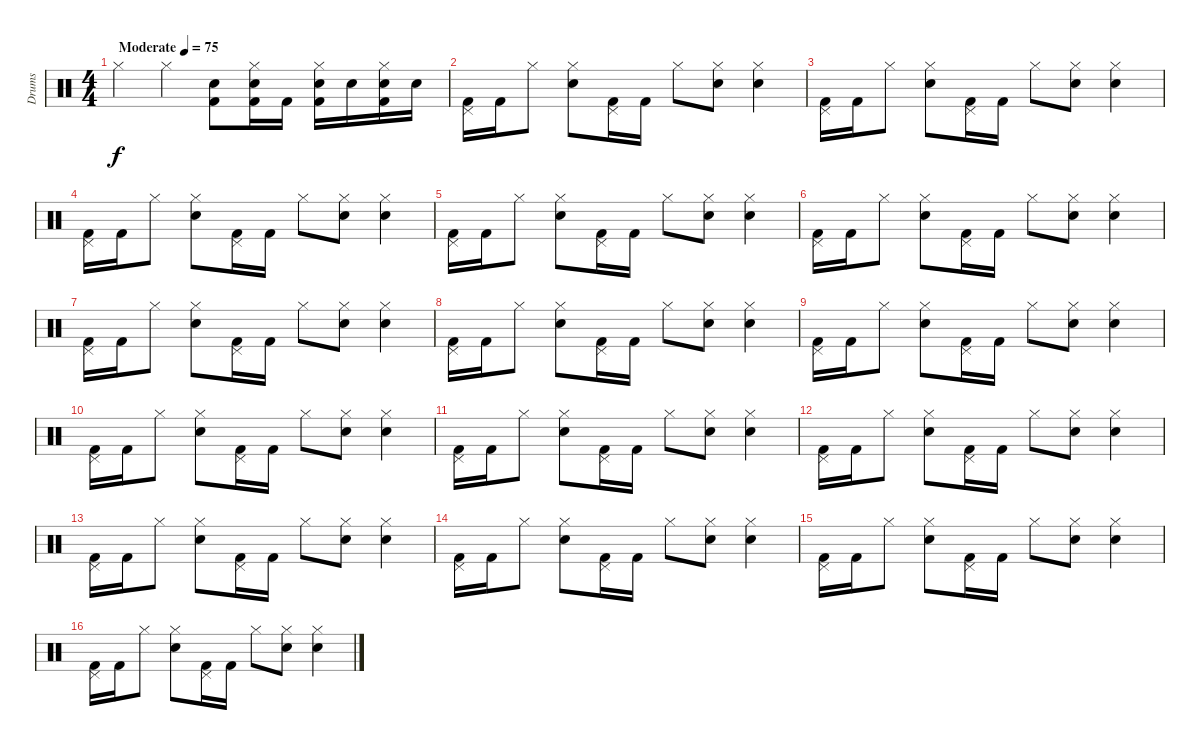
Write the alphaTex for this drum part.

\track ("Drums" "Drums") {instrument percussion}
\staff {score}
\articulation defaults
\ts (4 4)
\tempo (75 "Moderate")
\clef neutral
\ks c "Hi-Hat (closed)".4{dy f} "Hi-Hat (closed)".4
("Electric Snare (hit)" "Kick (hit) 2").8 ("Hi-Hat (closed)" "Electric Snare (hit)" "Kick (hit) 2").16 "Kick (hit) 2".16 ("Hi-Hat (closed)" "Electric Snare (hit)" "Kick (hit) 2").16 "Electric Snare (hit)".16 ("Hi-Hat (closed)" "Kick (hit) 2" "Electric Snare (hit)").16 "Electric Snare (hit)".16 |
("Pedal Hi-Hat (hit)" "Kick (hit) 2").16 "Kick (hit) 2".16 "Hi-Hat (closed)".8 ("Electric Snare (hit)" "Hi-Hat (closed)").8 ("Pedal Hi-Hat (hit)" "Kick (hit) 2").16 "Kick (hit) 2".16 "Hi-Hat (closed)".8 ("Electric Snare (hit)" "Hi-Hat (closed)").8 ("Electric Snare (hit)" "Hi-Hat (closed)").4 |
("Pedal Hi-Hat (hit)" "Kick (hit) 2").16 "Kick (hit) 2".16 "Hi-Hat (closed)".8 ("Electric Snare (hit)" "Hi-Hat (closed)").8 ("Pedal Hi-Hat (hit)" "Kick (hit) 2").16 "Kick (hit) 2".16 "Hi-Hat (closed)".8 ("Electric Snare (hit)" "Hi-Hat (closed)").8 ("Electric Snare (hit)" "Hi-Hat (closed)").4 |
("Pedal Hi-Hat (hit)" "Kick (hit) 2").16 "Kick (hit) 2".16 "Hi-Hat (closed)".8 ("Electric Snare (hit)" "Hi-Hat (closed)").8 ("Pedal Hi-Hat (hit)" "Kick (hit) 2").16 "Kick (hit) 2".16 "Hi-Hat (closed)".8 ("Electric Snare (hit)" "Hi-Hat (closed)").8 ("Electric Snare (hit)" "Hi-Hat (closed)").4 |
("Pedal Hi-Hat (hit)" "Kick (hit) 2").16 "Kick (hit) 2".16 "Hi-Hat (closed)".8 ("Electric Snare (hit)" "Hi-Hat (closed)").8 ("Pedal Hi-Hat (hit)" "Kick (hit) 2").16 "Kick (hit) 2".16 "Hi-Hat (closed)".8 ("Electric Snare (hit)" "Hi-Hat (closed)").8 ("Electric Snare (hit)" "Hi-Hat (closed)").4 |
("Pedal Hi-Hat (hit)" "Kick (hit) 2").16 "Kick (hit) 2".16 "Hi-Hat (closed)".8 ("Electric Snare (hit)" "Hi-Hat (closed)").8 ("Pedal Hi-Hat (hit)" "Kick (hit) 2").16 "Kick (hit) 2".16 "Hi-Hat (closed)".8 ("Electric Snare (hit)" "Hi-Hat (closed)").8 ("Electric Snare (hit)" "Hi-Hat (closed)").4 |
("Pedal Hi-Hat (hit)" "Kick (hit) 2").16 "Kick (hit) 2".16 "Hi-Hat (closed)".8 ("Electric Snare (hit)" "Hi-Hat (closed)").8 ("Pedal Hi-Hat (hit)" "Kick (hit) 2").16 "Kick (hit) 2".16 "Hi-Hat (closed)".8 ("Electric Snare (hit)" "Hi-Hat (closed)").8 ("Electric Snare (hit)" "Hi-Hat (closed)").4 |
("Pedal Hi-Hat (hit)" "Kick (hit) 2").16 "Kick (hit) 2".16 "Hi-Hat (closed)".8 ("Electric Snare (hit)" "Hi-Hat (closed)").8 ("Pedal Hi-Hat (hit)" "Kick (hit) 2").16 "Kick (hit) 2".16 "Hi-Hat (closed)".8 ("Electric Snare (hit)" "Hi-Hat (closed)").8 ("Electric Snare (hit)" "Hi-Hat (closed)").4 |
("Pedal Hi-Hat (hit)" "Kick (hit) 2").16 "Kick (hit) 2".16 "Hi-Hat (closed)".8 ("Electric Snare (hit)" "Hi-Hat (closed)").8 ("Pedal Hi-Hat (hit)" "Kick (hit) 2").16 "Kick (hit) 2".16 "Hi-Hat (closed)".8 ("Electric Snare (hit)" "Hi-Hat (closed)").8 ("Electric Snare (hit)" "Hi-Hat (closed)").4 |
("Pedal Hi-Hat (hit)" "Kick (hit) 2").16 "Kick (hit) 2".16 "Hi-Hat (closed)".8 ("Electric Snare (hit)" "Hi-Hat (closed)").8 ("Pedal Hi-Hat (hit)" "Kick (hit) 2").16 "Kick (hit) 2".16 "Hi-Hat (closed)".8 ("Electric Snare (hit)" "Hi-Hat (closed)").8 ("Electric Snare (hit)" "Hi-Hat (closed)").4 |
("Pedal Hi-Hat (hit)" "Kick (hit) 2").16 "Kick (hit) 2".16 "Hi-Hat (closed)".8 ("Electric Snare (hit)" "Hi-Hat (closed)").8 ("Pedal Hi-Hat (hit)" "Kick (hit) 2").16 "Kick (hit) 2".16 "Hi-Hat (closed)".8 ("Electric Snare (hit)" "Hi-Hat (closed)").8 ("Electric Snare (hit)" "Hi-Hat (closed)").4 |
("Pedal Hi-Hat (hit)" "Kick (hit) 2").16 "Kick (hit) 2".16 "Hi-Hat (closed)".8 ("Electric Snare (hit)" "Hi-Hat (closed)").8 ("Pedal Hi-Hat (hit)" "Kick (hit) 2").16 "Kick (hit) 2".16 "Hi-Hat (closed)".8 ("Electric Snare (hit)" "Hi-Hat (closed)").8 ("Electric Snare (hit)" "Hi-Hat (closed)").4 |
("Pedal Hi-Hat (hit)" "Kick (hit) 2").16 "Kick (hit) 2".16 "Hi-Hat (closed)".8 ("Electric Snare (hit)" "Hi-Hat (closed)").8 ("Pedal Hi-Hat (hit)" "Kick (hit) 2").16 "Kick (hit) 2".16 "Hi-Hat (closed)".8 ("Electric Snare (hit)" "Hi-Hat (closed)").8 ("Electric Snare (hit)" "Hi-Hat (closed)").4 |
("Pedal Hi-Hat (hit)" "Kick (hit) 2").16 "Kick (hit) 2".16 "Hi-Hat (closed)".8 ("Electric Snare (hit)" "Hi-Hat (closed)").8 ("Pedal Hi-Hat (hit)" "Kick (hit) 2").16 "Kick (hit) 2".16 "Hi-Hat (closed)".8 ("Electric Snare (hit)" "Hi-Hat (closed)").8 ("Electric Snare (hit)" "Hi-Hat (closed)").4 |
("Pedal Hi-Hat (hit)" "Kick (hit) 2").16 "Kick (hit) 2".16 "Hi-Hat (closed)".8 ("Electric Snare (hit)" "Hi-Hat (closed)").8 ("Pedal Hi-Hat (hit)" "Kick (hit) 2").16 "Kick (hit) 2".16 "Hi-Hat (closed)".8 ("Electric Snare (hit)" "Hi-Hat (closed)").8 ("Electric Snare (hit)" "Hi-Hat (closed)").4 |
("Pedal Hi-Hat (hit)" "Kick (hit) 2").16 "Kick (hit) 2".16 "Hi-Hat (closed)".8 ("Electric Snare (hit)" "Hi-Hat (closed)").8 ("Pedal Hi-Hat (hit)" "Kick (hit) 2").16 "Kick (hit) 2".16 "Hi-Hat (closed)".8 ("Electric Snare (hit)" "Hi-Hat (closed)").8 ("Electric Snare (hit)" "Hi-Hat (closed)").4
